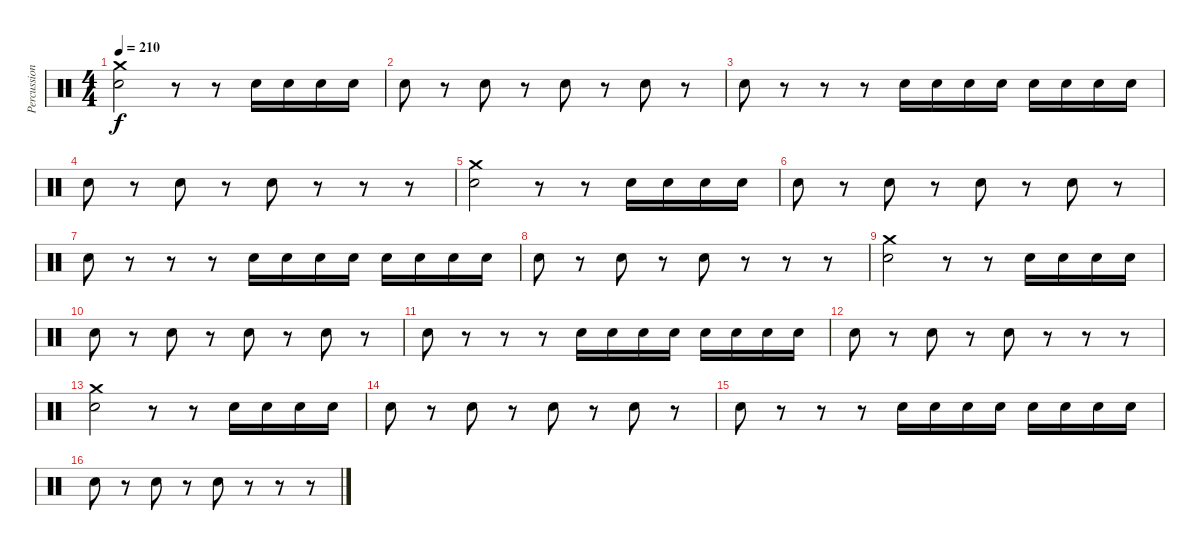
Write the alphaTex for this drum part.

\track ("Percussion" "Percussion") {instrument percussion}
\staff {score}
\articulation defaults
\ts (4 4)
\tempo 210
\clef neutral
\ks c
("Crash medium (hit)" "Electric Snare (hit)").2{dy f} r.8 r.8 "Electric Snare (hit)".16 "Electric Snare (hit)".16 "Electric Snare (hit)".16 "Electric Snare (hit)".16 |
"Electric Snare (hit)".8 r.8 "Electric Snare (hit)".8 r.8 "Electric Snare (hit)".8 r.8 "Electric Snare (hit)".8 r.8 |
"Electric Snare (hit)".8 r.8 r.8 r.8 "Electric Snare (hit)".16 "Electric Snare (hit)".16 "Electric Snare (hit)".16 "Electric Snare (hit)".16 "Electric Snare (hit)".16 "Electric Snare (hit)".16 "Electric Snare (hit)".16 "Electric Snare (hit)".16 |
"Electric Snare (hit)".8 r.8 "Electric Snare (hit)".8 r.8 "Electric Snare (hit)".8 r.8 r.8 r.8 |
("Crash medium (hit)" "Electric Snare (hit)").2 r.8 r.8 "Electric Snare (hit)".16 "Electric Snare (hit)".16 "Electric Snare (hit)".16 "Electric Snare (hit)".16 |
"Electric Snare (hit)".8 r.8 "Electric Snare (hit)".8 r.8 "Electric Snare (hit)".8 r.8 "Electric Snare (hit)".8 r.8 |
"Electric Snare (hit)".8 r.8 r.8 r.8 "Electric Snare (hit)".16 "Electric Snare (hit)".16 "Electric Snare (hit)".16 "Electric Snare (hit)".16 "Electric Snare (hit)".16 "Electric Snare (hit)".16 "Electric Snare (hit)".16 "Electric Snare (hit)".16 |
"Electric Snare (hit)".8 r.8 "Electric Snare (hit)".8 r.8 "Electric Snare (hit)".8 r.8 r.8 r.8 |
("Crash medium (hit)" "Electric Snare (hit)").2 r.8 r.8 "Electric Snare (hit)".16 "Electric Snare (hit)".16 "Electric Snare (hit)".16 "Electric Snare (hit)".16 |
"Electric Snare (hit)".8 r.8 "Electric Snare (hit)".8 r.8 "Electric Snare (hit)".8 r.8 "Electric Snare (hit)".8 r.8 |
"Electric Snare (hit)".8 r.8 r.8 r.8 "Electric Snare (hit)".16 "Electric Snare (hit)".16 "Electric Snare (hit)".16 "Electric Snare (hit)".16 "Electric Snare (hit)".16 "Electric Snare (hit)".16 "Electric Snare (hit)".16 "Electric Snare (hit)".16 |
"Electric Snare (hit)".8 r.8 "Electric Snare (hit)".8 r.8 "Electric Snare (hit)".8 r.8 r.8 r.8 |
("Crash medium (hit)" "Electric Snare (hit)").2 r.8 r.8 "Electric Snare (hit)".16 "Electric Snare (hit)".16 "Electric Snare (hit)".16 "Electric Snare (hit)".16 |
"Electric Snare (hit)".8 r.8 "Electric Snare (hit)".8 r.8 "Electric Snare (hit)".8 r.8 "Electric Snare (hit)".8 r.8 |
"Electric Snare (hit)".8 r.8 r.8 r.8 "Electric Snare (hit)".16 "Electric Snare (hit)".16 "Electric Snare (hit)".16 "Electric Snare (hit)".16 "Electric Snare (hit)".16 "Electric Snare (hit)".16 "Electric Snare (hit)".16 "Electric Snare (hit)".16 |
"Electric Snare (hit)".8 r.8 "Electric Snare (hit)".8 r.8 "Electric Snare (hit)".8 r.8 r.8 r.8
